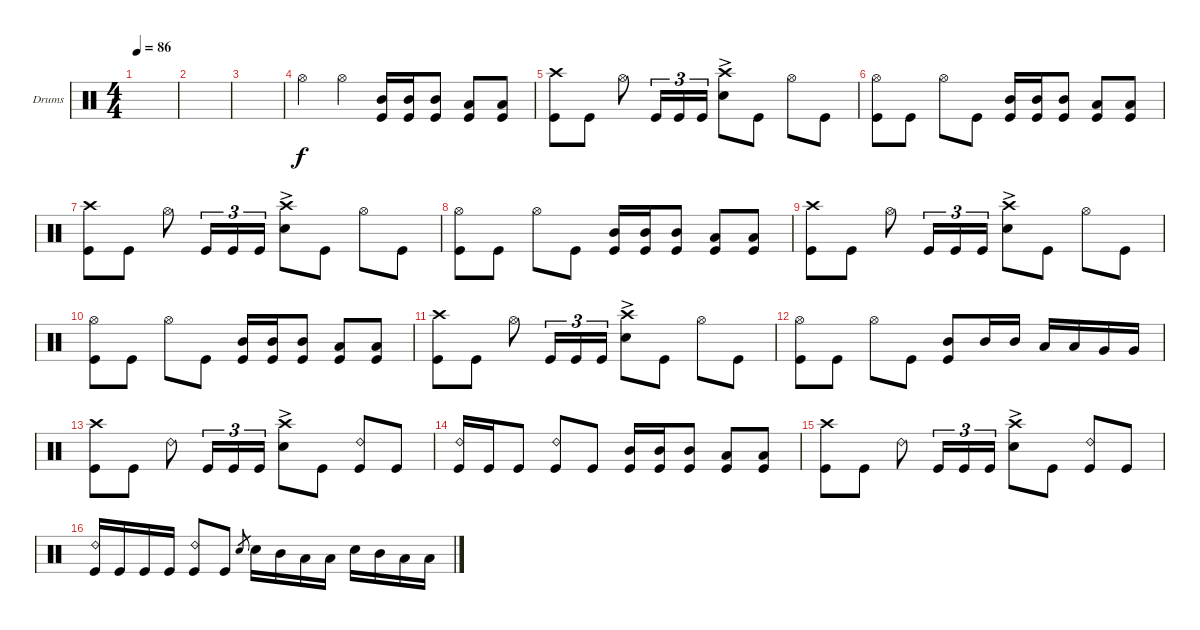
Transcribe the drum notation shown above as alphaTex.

\defaultSystemsLayout 4
\bracketExtendMode groupsimilarinstruments
\firstSystemTrackNameOrientation horizontal
\otherSystemsTrackNameOrientation horizontal
\track ("Drumkit" "Drums") {instrument percussion}
\staff {score}
\articulation defaults
\ts (4 4)
\tempo 86
\clef neutral
\scale
0.474178
\ks c
|
\scale
0.262911 |
\scale
0.262911 |
\scale
0.282534 "Hi-Hat (open)".4 "Hi-Hat (open)".4 ("Kick (hit)" "Mid Tom (hit)").16 ("Kick (hit)" "Mid Tom (hit)").16 ("Kick (hit)" "Mid Tom (hit)").8 ("Kick (hit)" "Low Tom (hit)").8 ("Kick (hit)" "Low Tom (hit)").8 |
\scale
0.400685 ("Crash high (hit)" "Kick (hit)").8 "Kick (hit)".8 "Hi-Hat (open)".8 "Kick (hit)".16{tu (3 2)} "Kick (hit)".16{tu (3 2)} "Kick (hit)".16{tu (3 2)} ("Snare (hit) 2"{ac} "Crash high (hit)").8 "Kick (hit)".8 "Hi-Hat (open)".8 "Kick (hit)".8 |
\scale
0.316781 ("Kick (hit)" "Hi-Hat (open)").8 "Kick (hit)".8 "Hi-Hat (open)".8 "Kick (hit)".8 ("Kick (hit)" "Mid Tom (hit)").16 ("Kick (hit)" "Mid Tom (hit)").16 ("Kick (hit)" "Mid Tom (hit)").8 ("Kick (hit)" "Low Tom (hit)").8 ("Kick (hit)" "Low Tom (hit)").8 |
\scale
0.358346 ("Crash high (hit)" "Kick (hit)").8 "Kick (hit)".8 "Hi-Hat (open)".8 "Kick (hit)".16{tu (3 2)} "Kick (hit)".16{tu (3 2)} "Kick (hit)".16{tu (3 2)} ("Snare (hit) 2"{ac} "Crash high (hit)").8 "Kick (hit)".8 "Hi-Hat (open)".8 "Kick (hit)".8 |
\scale
0.283308 ("Kick (hit)" "Hi-Hat (open)").8 "Kick (hit)".8 "Hi-Hat (open)".8 "Kick (hit)".8 ("Kick (hit)" "Mid Tom (hit)").16 ("Kick (hit)" "Mid Tom (hit)").16 ("Kick (hit)" "Mid Tom (hit)").8 ("Kick (hit)" "Low Tom (hit)").8 ("Kick (hit)" "Low Tom (hit)").8 |
\scale
0.358346 ("Crash high (hit)" "Kick (hit)").8 "Kick (hit)".8 "Hi-Hat (open)".8 "Kick (hit)".16{tu (3 2)} "Kick (hit)".16{tu (3 2)} "Kick (hit)".16{tu (3 2)} ("Snare (hit) 2"{ac} "Crash high (hit)").8 "Kick (hit)".8 "Hi-Hat (open)".8 "Kick (hit)".8 |
\scale
0.297428 ("Kick (hit)" "Hi-Hat (open)").8 "Kick (hit)".8 "Hi-Hat (open)".8 "Kick (hit)".8 ("Kick (hit)" "Mid Tom (hit)").16 ("Kick (hit)" "Mid Tom (hit)").16 ("Kick (hit)" "Mid Tom (hit)").8 ("Kick (hit)" "Low Tom (hit)").8 ("Kick (hit)" "Low Tom (hit)").8 |
\scale
0.376206 ("Crash high (hit)" "Kick (hit)").8 "Kick (hit)".8 "Hi-Hat (open)".8 "Kick (hit)".16{tu (3 2)} "Kick (hit)".16{tu (3 2)} "Kick (hit)".16{tu (3 2)} ("Snare (hit) 2"{ac} "Crash high (hit)").8 "Kick (hit)".8 "Hi-Hat (open)".8 "Kick (hit)".8 |
\scale
0.326367 ("Kick (hit)" "Hi-Hat (open)").8 "Kick (hit)".8 "Hi-Hat (open)".8 "Kick (hit)".8 ("Mid Tom (hit)" "Kick (hit)").8 "Mid Tom (hit)".16 "Mid Tom (hit)".16 "Low Tom (hit)".16 "Low Tom (hit)".16 "Very Low Tom (hit)".16 "Very Low Tom (hit)".16 |
\scale
0.353474 ("Crash high (hit)" "Kick (hit)").8 "Kick (hit)".8 "Ride (bell) 2".8 "Kick (hit)".16{tu (3 2)} "Kick (hit)".16{tu (3 2)} "Kick (hit)".16{tu (3 2)} ("Snare (hit) 2"{ac} "Crash high (hit)").8 "Kick (hit)".8 ("Kick (hit)" "Ride (bell) 2").8 "Kick (hit)".8 |
\scale
0.293051 ("Kick (hit)" "Ride (bell) 2").16 "Kick (hit)".16 "Kick (hit)".8 ("Kick (hit)" "Ride (bell) 2").8 "Kick (hit)".8 ("Kick (hit)" "Mid Tom (hit)").16 ("Kick (hit)" "Mid Tom (hit)").16 ("Kick (hit)" "Mid Tom (hit)").8 ("Kick (hit)" "Low Tom (hit)").8 ("Kick (hit)" "Low Tom (hit)").8 |
\scale
0.353474 ("Crash high (hit)" "Kick (hit)").8 "Kick (hit)".8 "Ride (bell) 2".8 "Kick (hit)".16{tu (3 2)} "Kick (hit)".16{tu (3 2)} "Kick (hit)".16{tu (3 2)} ("Snare (hit) 2"{ac} "Crash high (hit)").8 "Kick (hit)".8 ("Ride (bell) 2" "Kick (hit)").8 "Kick (hit)".8 |
\scale
0.415358 ("Kick (hit)" "Ride (bell) 2").16 "Kick (hit)".16 "Kick (hit)".16 "Kick (hit)".16 ("Ride (bell) 2" "Kick (hit)").8 "Kick (hit)".8 "Snare (hit) 2".8{gr} "Snare (hit) 2".16 "Mid Tom (hit)".16 "Low Tom (hit)".16 "Low Tom (hit)".16 "Snare (hit) 2".16 "Mid Tom (hit)".16 "Low Tom (hit)".16 "Low Tom (hit)".16
